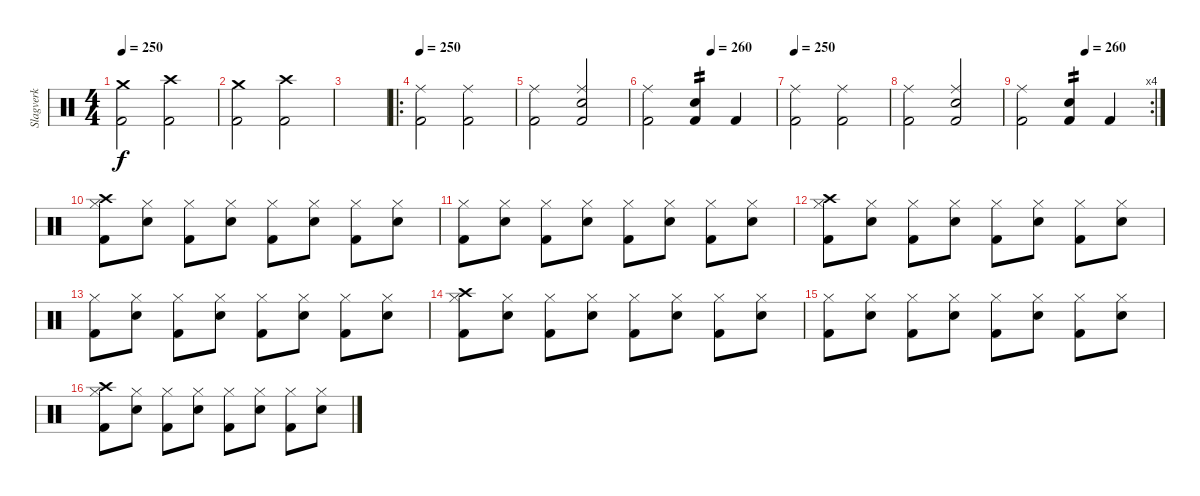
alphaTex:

\track ("Slagverk" "Slagverk") {instrument percussion}
\staff {score}
\articulation defaults
\ts (4 4)
\tempo 250
\clef neutral
\ks c
("Crash medium (hit)" "Kick (hit) 2").2{dy f} ("Crash high (hit)" "Kick (hit) 2").2 |
("Crash medium (hit)" "Kick (hit) 2").2 ("Crash high (hit)" "Kick (hit) 2").2 |
|
\ro
\tempo 250
("Ride (middle)" "Kick (hit) 2").2 ("Ride (middle)" "Kick (hit) 2").2 |
("Ride (middle)" "Kick (hit) 2").2 ("Ride (middle)" "Electric Snare (hit)" "Kick (hit) 2").2 |
\tempo (260 0.5)
("Ride (middle)" "Kick (hit) 2").2 ("Electric Snare (hit)" "Kick (hit) 2").4{tp 2} "Kick (hit) 2".4 |
\tempo 250
("Ride (middle)" "Kick (hit) 2").2 ("Ride (middle)" "Kick (hit) 2").2 |
("Ride (middle)" "Kick (hit) 2").2 ("Ride (middle)" "Electric Snare (hit)" "Kick (hit) 2").2 |
\rc 4
\tempo (260 0.5)
("Ride (middle)" "Kick (hit) 2").2 ("Electric Snare (hit)" "Kick (hit) 2").4{tp 2} "Kick (hit) 2".4 |
("Crash high (hit)" "Hi-Hat (closed)" "Kick (hit) 2").8 ("Electric Snare (hit)" "Hi-Hat (closed)").8 ("Hi-Hat (closed)" "Kick (hit) 2").8 ("Electric Snare (hit)" "Hi-Hat (closed)").8 ("Hi-Hat (closed)" "Kick (hit) 2").8 ("Electric Snare (hit)" "Hi-Hat (closed)").8 ("Hi-Hat (closed)" "Kick (hit) 2").8 ("Electric Snare (hit)" "Hi-Hat (closed)").8 |
("Hi-Hat (closed)" "Kick (hit) 2").8 ("Electric Snare (hit)" "Hi-Hat (closed)").8 ("Hi-Hat (closed)" "Kick (hit) 2").8 ("Electric Snare (hit)" "Hi-Hat (closed)").8 ("Hi-Hat (closed)" "Kick (hit) 2").8 ("Electric Snare (hit)" "Hi-Hat (closed)").8 ("Hi-Hat (closed)" "Kick (hit) 2").8 ("Electric Snare (hit)" "Hi-Hat (closed)").8 |
("Crash high (hit)" "Hi-Hat (closed)" "Kick (hit) 2").8 ("Electric Snare (hit)" "Hi-Hat (closed)").8 ("Hi-Hat (closed)" "Kick (hit) 2").8 ("Electric Snare (hit)" "Hi-Hat (closed)").8 ("Hi-Hat (closed)" "Kick (hit) 2").8 ("Electric Snare (hit)" "Hi-Hat (closed)").8 ("Hi-Hat (closed)" "Kick (hit) 2").8 ("Electric Snare (hit)" "Hi-Hat (closed)").8 |
("Hi-Hat (closed)" "Kick (hit) 2").8 ("Electric Snare (hit)" "Hi-Hat (closed)").8 ("Hi-Hat (closed)" "Kick (hit) 2").8 ("Electric Snare (hit)" "Hi-Hat (closed)").8 ("Hi-Hat (closed)" "Kick (hit) 2").8 ("Electric Snare (hit)" "Hi-Hat (closed)").8 ("Hi-Hat (closed)" "Kick (hit) 2").8 ("Electric Snare (hit)" "Hi-Hat (closed)").8 |
("Crash high (hit)" "Hi-Hat (closed)" "Kick (hit) 2").8 ("Electric Snare (hit)" "Hi-Hat (closed)").8 ("Hi-Hat (closed)" "Kick (hit) 2").8 ("Electric Snare (hit)" "Hi-Hat (closed)").8 ("Hi-Hat (closed)" "Kick (hit) 2").8 ("Electric Snare (hit)" "Hi-Hat (closed)").8 ("Hi-Hat (closed)" "Kick (hit) 2").8 ("Electric Snare (hit)" "Hi-Hat (closed)").8 |
("Hi-Hat (closed)" "Kick (hit) 2").8 ("Electric Snare (hit)" "Hi-Hat (closed)").8 ("Hi-Hat (closed)" "Kick (hit) 2").8 ("Electric Snare (hit)" "Hi-Hat (closed)").8 ("Hi-Hat (closed)" "Kick (hit) 2").8 ("Electric Snare (hit)" "Hi-Hat (closed)").8 ("Hi-Hat (closed)" "Kick (hit) 2").8 ("Electric Snare (hit)" "Hi-Hat (closed)").8 |
("Crash high (hit)" "Hi-Hat (closed)" "Kick (hit) 2").8 ("Electric Snare (hit)" "Hi-Hat (closed)").8 ("Hi-Hat (closed)" "Kick (hit) 2").8 ("Electric Snare (hit)" "Hi-Hat (closed)").8 ("Hi-Hat (closed)" "Kick (hit) 2").8 ("Electric Snare (hit)" "Hi-Hat (closed)").8 ("Hi-Hat (closed)" "Kick (hit) 2").8 ("Electric Snare (hit)" "Hi-Hat (closed)").8
